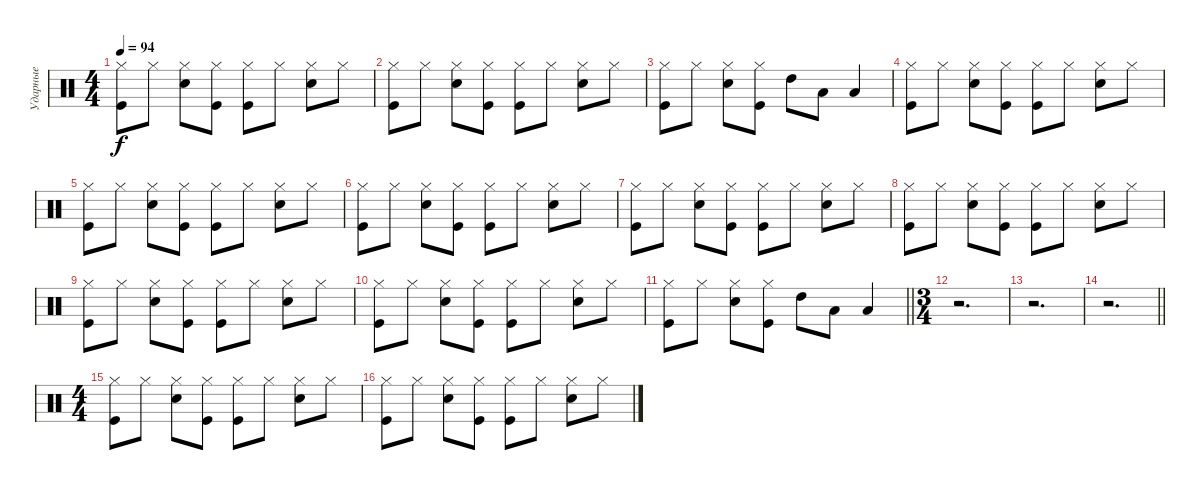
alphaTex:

\track ("Ударные" "Ударные") {instrument percussion}
\staff {score}
\articulation defaults
\ts (4 4)
\tempo 94
\clef neutral
\ks c
("Hi-Hat (closed)" "Kick (hit)").8{dy f} "Hi-Hat (closed)".8 ("Hi-Hat (closed)" "Snare (hit) 2").8 ("Kick (hit)" "Hi-Hat (closed)").8 ("Hi-Hat (closed)" "Kick (hit)").8 "Hi-Hat (closed)".8 ("Hi-Hat (closed)" "Snare (hit) 2").8 "Hi-Hat (closed)".8 |
("Hi-Hat (closed)" "Kick (hit)").8 "Hi-Hat (closed)".8 ("Hi-Hat (closed)" "Snare (hit) 2").8 ("Kick (hit)" "Hi-Hat (closed)").8 ("Hi-Hat (closed)" "Kick (hit)").8 "Hi-Hat (closed)".8 ("Hi-Hat (closed)" "Snare (hit) 2").8 "Hi-Hat (closed)".8 |
("Hi-Hat (closed)" "Kick (hit)").8 "Hi-Hat (closed)".8 ("Hi-Hat (closed)" "Snare (hit) 2").8 ("Kick (hit)" "Hi-Hat (closed)").8 "High Tom (hit)".8 "Low Tom (hit)".8 "Low Floor Tom (hit)".4 |
("Hi-Hat (closed)" "Kick (hit)").8 "Hi-Hat (closed)".8 ("Hi-Hat (closed)" "Snare (hit) 2").8 ("Kick (hit)" "Hi-Hat (closed)").8 ("Hi-Hat (closed)" "Kick (hit)").8 "Hi-Hat (closed)".8 ("Hi-Hat (closed)" "Snare (hit) 2").8 "Hi-Hat (closed)".8 |
("Hi-Hat (closed)" "Kick (hit)").8 "Hi-Hat (closed)".8 ("Hi-Hat (closed)" "Snare (hit) 2").8 ("Kick (hit)" "Hi-Hat (closed)").8 ("Hi-Hat (closed)" "Kick (hit)").8 "Hi-Hat (closed)".8 ("Hi-Hat (closed)" "Snare (hit) 2").8 "Hi-Hat (closed)".8 |
("Hi-Hat (closed)" "Kick (hit)").8 "Hi-Hat (closed)".8 ("Hi-Hat (closed)" "Snare (hit) 2").8 ("Kick (hit)" "Hi-Hat (closed)").8 ("Hi-Hat (closed)" "Kick (hit)").8 "Hi-Hat (closed)".8 ("Hi-Hat (closed)" "Snare (hit) 2").8 "Hi-Hat (closed)".8 |
("Hi-Hat (closed)" "Kick (hit)").8 "Hi-Hat (closed)".8 ("Hi-Hat (closed)" "Snare (hit) 2").8 ("Kick (hit)" "Hi-Hat (closed)").8 ("Hi-Hat (closed)" "Kick (hit)").8 "Hi-Hat (closed)".8 ("Hi-Hat (closed)" "Snare (hit) 2").8 "Hi-Hat (closed)".8 |
("Hi-Hat (closed)" "Kick (hit)").8 "Hi-Hat (closed)".8 ("Hi-Hat (closed)" "Snare (hit) 2").8 ("Kick (hit)" "Hi-Hat (closed)").8 ("Hi-Hat (closed)" "Kick (hit)").8 "Hi-Hat (closed)".8 ("Hi-Hat (closed)" "Snare (hit) 2").8 "Hi-Hat (closed)".8 |
("Hi-Hat (closed)" "Kick (hit)").8 "Hi-Hat (closed)".8 ("Hi-Hat (closed)" "Snare (hit) 2").8 ("Kick (hit)" "Hi-Hat (closed)").8 ("Hi-Hat (closed)" "Kick (hit)").8 "Hi-Hat (closed)".8 ("Hi-Hat (closed)" "Snare (hit) 2").8 "Hi-Hat (closed)".8 |
("Hi-Hat (closed)" "Kick (hit)").8 "Hi-Hat (closed)".8 ("Hi-Hat (closed)" "Snare (hit) 2").8 ("Kick (hit)" "Hi-Hat (closed)").8 ("Hi-Hat (closed)" "Kick (hit)").8 "Hi-Hat (closed)".8 ("Hi-Hat (closed)" "Snare (hit) 2").8 "Hi-Hat (closed)".8 |
\barLineRight lightlight
("Hi-Hat (closed)" "Kick (hit)").8 "Hi-Hat (closed)".8 ("Hi-Hat (closed)" "Snare (hit) 2").8 ("Kick (hit)" "Hi-Hat (closed)").8 "High Tom (hit)".8 "Low Tom (hit)".8 "Low Floor Tom (hit)".4 |
\ts (3 4)
r.2{d} |
r.2{d} |
\barLineRight lightlight
r.2{d} |
\ts (4 4)
("Hi-Hat (closed)" "Kick (hit)").8 "Hi-Hat (closed)".8 ("Hi-Hat (closed)" "Snare (hit) 2").8 ("Kick (hit)" "Hi-Hat (closed)").8 ("Hi-Hat (closed)" "Kick (hit)").8 "Hi-Hat (closed)".8 ("Hi-Hat (closed)" "Snare (hit) 2").8 "Hi-Hat (closed)".8 |
("Hi-Hat (closed)" "Kick (hit)").8 "Hi-Hat (closed)".8 ("Hi-Hat (closed)" "Snare (hit) 2").8 ("Kick (hit)" "Hi-Hat (closed)").8 ("Hi-Hat (closed)" "Kick (hit)").8 "Hi-Hat (closed)".8 ("Hi-Hat (closed)" "Snare (hit) 2").8 "Hi-Hat (closed)".8
